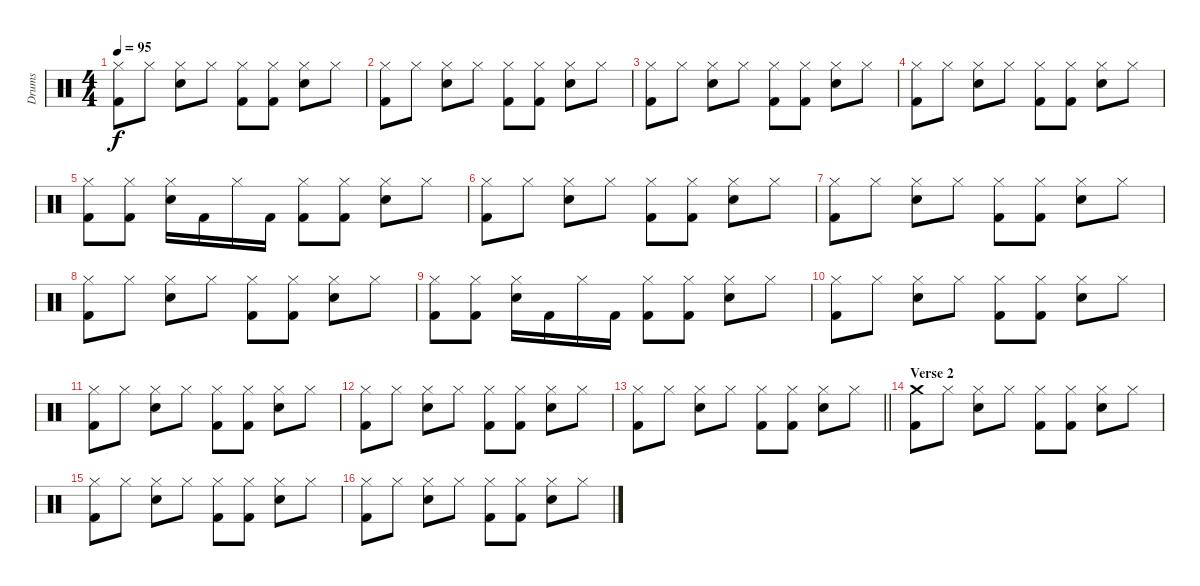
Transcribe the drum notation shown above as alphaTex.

\track ("Drums" "Drums") {instrument percussion}
\staff
\articulation defaults
\ts (4 4)
\tempo 95
\clef neutral
\ks c
("Hi-Hat (closed)" "Kick (hit) 2").8{dy f} "Hi-Hat (closed)".8 ("Hi-Hat (closed)" "Electric Snare (hit)").8 "Hi-Hat (closed)".8 ("Hi-Hat (closed)" "Kick (hit) 2").8 ("Hi-Hat (closed)" "Kick (hit) 2").8 ("Hi-Hat (closed)" "Electric Snare (hit)").8 "Hi-Hat (closed)".8 |
("Hi-Hat (closed)" "Kick (hit) 2").8 "Hi-Hat (closed)".8 ("Hi-Hat (closed)" "Electric Snare (hit)").8 "Hi-Hat (closed)".8 ("Hi-Hat (closed)" "Kick (hit) 2").8 ("Hi-Hat (closed)" "Kick (hit) 2").8 ("Hi-Hat (closed)" "Electric Snare (hit)").8 "Hi-Hat (closed)".8 |
("Hi-Hat (closed)" "Kick (hit) 2").8 "Hi-Hat (closed)".8 ("Hi-Hat (closed)" "Electric Snare (hit)").8 "Hi-Hat (closed)".8 ("Hi-Hat (closed)" "Kick (hit) 2").8 ("Hi-Hat (closed)" "Kick (hit) 2").8 ("Hi-Hat (closed)" "Electric Snare (hit)").8 "Hi-Hat (closed)".8 |
("Hi-Hat (closed)" "Kick (hit) 2").8 "Hi-Hat (closed)".8 ("Hi-Hat (closed)" "Electric Snare (hit)").8 "Hi-Hat (closed)".8 ("Hi-Hat (closed)" "Kick (hit) 2").8 ("Hi-Hat (closed)" "Kick (hit) 2").8 ("Hi-Hat (closed)" "Electric Snare (hit)").8 "Hi-Hat (closed)".8 |
("Hi-Hat (closed)" "Kick (hit) 2").8 ("Hi-Hat (closed)" "Kick (hit) 2").8 ("Hi-Hat (closed)" "Electric Snare (hit)").16 "Kick (hit) 2".16 "Hi-Hat (closed)".16 "Kick (hit) 2".16 ("Hi-Hat (closed)" "Kick (hit) 2").8 ("Hi-Hat (closed)" "Kick (hit) 2").8 ("Hi-Hat (closed)" "Electric Snare (hit)").8 "Hi-Hat (closed)".8 |
("Hi-Hat (closed)" "Kick (hit) 2").8 "Hi-Hat (closed)".8 ("Hi-Hat (closed)" "Electric Snare (hit)").8 "Hi-Hat (closed)".8 ("Hi-Hat (closed)" "Kick (hit) 2").8 ("Hi-Hat (closed)" "Kick (hit) 2").8 ("Hi-Hat (closed)" "Electric Snare (hit)").8 "Hi-Hat (closed)".8 |
("Hi-Hat (closed)" "Kick (hit) 2").8 "Hi-Hat (closed)".8 ("Hi-Hat (closed)" "Electric Snare (hit)").8 "Hi-Hat (closed)".8 ("Hi-Hat (closed)" "Kick (hit) 2").8 ("Hi-Hat (closed)" "Kick (hit) 2").8 ("Hi-Hat (closed)" "Electric Snare (hit)").8 "Hi-Hat (closed)".8 |
("Hi-Hat (closed)" "Kick (hit) 2").8 "Hi-Hat (closed)".8 ("Hi-Hat (closed)" "Electric Snare (hit)").8 "Hi-Hat (closed)".8 ("Hi-Hat (closed)" "Kick (hit) 2").8 ("Hi-Hat (closed)" "Kick (hit) 2").8 ("Hi-Hat (closed)" "Electric Snare (hit)").8 "Hi-Hat (closed)".8 |
("Hi-Hat (closed)" "Kick (hit) 2").8 ("Hi-Hat (closed)" "Kick (hit) 2").8 ("Hi-Hat (closed)" "Electric Snare (hit)").16 "Kick (hit) 2".16 "Hi-Hat (closed)".16 "Kick (hit) 2".16 ("Hi-Hat (closed)" "Kick (hit) 2").8 ("Hi-Hat (closed)" "Kick (hit) 2").8 ("Hi-Hat (closed)" "Electric Snare (hit)").8 "Hi-Hat (closed)".8 |
("Hi-Hat (closed)" "Kick (hit) 2").8 "Hi-Hat (closed)".8 ("Hi-Hat (closed)" "Electric Snare (hit)").8 "Hi-Hat (closed)".8 ("Hi-Hat (closed)" "Kick (hit) 2").8 ("Hi-Hat (closed)" "Kick (hit) 2").8 ("Hi-Hat (closed)" "Electric Snare (hit)").8 "Hi-Hat (closed)".8 |
("Hi-Hat (closed)" "Kick (hit) 2").8 "Hi-Hat (closed)".8 ("Hi-Hat (closed)" "Electric Snare (hit)").8 "Hi-Hat (closed)".8 ("Hi-Hat (closed)" "Kick (hit) 2").8 ("Hi-Hat (closed)" "Kick (hit) 2").8 ("Hi-Hat (closed)" "Electric Snare (hit)").8 "Hi-Hat (closed)".8 |
("Hi-Hat (closed)" "Kick (hit) 2").8 "Hi-Hat (closed)".8 ("Hi-Hat (closed)" "Electric Snare (hit)").8 "Hi-Hat (closed)".8 ("Hi-Hat (closed)" "Kick (hit) 2").8 ("Hi-Hat (closed)" "Kick (hit) 2").8 ("Hi-Hat (closed)" "Electric Snare (hit)").8 "Hi-Hat (closed)".8 |
\barLineRight lightlight
("Hi-Hat (closed)" "Kick (hit) 2").8 "Hi-Hat (closed)".8 ("Hi-Hat (closed)" "Electric Snare (hit)").8 "Hi-Hat (closed)".8 ("Hi-Hat (closed)" "Kick (hit) 2").8 ("Hi-Hat (closed)" "Kick (hit) 2").8 ("Hi-Hat (closed)" "Electric Snare (hit)").8 "Hi-Hat (closed)".8 |
\section ("" "Verse 2")
("Crash medium (hit)" "Kick (hit) 2").8 "Hi-Hat (closed)".8 ("Hi-Hat (closed)" "Electric Snare (hit)").8 "Hi-Hat (closed)".8 ("Hi-Hat (closed)" "Kick (hit) 2").8 ("Hi-Hat (closed)" "Kick (hit) 2").8 ("Hi-Hat (closed)" "Electric Snare (hit)").8 "Hi-Hat (closed)".8 |
("Hi-Hat (closed)" "Kick (hit) 2").8 "Hi-Hat (closed)".8 ("Hi-Hat (closed)" "Electric Snare (hit)").8 "Hi-Hat (closed)".8 ("Hi-Hat (closed)" "Kick (hit) 2").8 ("Hi-Hat (closed)" "Kick (hit) 2").8 ("Hi-Hat (closed)" "Electric Snare (hit)").8 "Hi-Hat (closed)".8 |
("Hi-Hat (closed)" "Kick (hit) 2").8 "Hi-Hat (closed)".8 ("Hi-Hat (closed)" "Electric Snare (hit)").8 "Hi-Hat (closed)".8 ("Hi-Hat (closed)" "Kick (hit) 2").8 ("Hi-Hat (closed)" "Kick (hit) 2").8 ("Hi-Hat (closed)" "Electric Snare (hit)").8 "Hi-Hat (closed)".8
